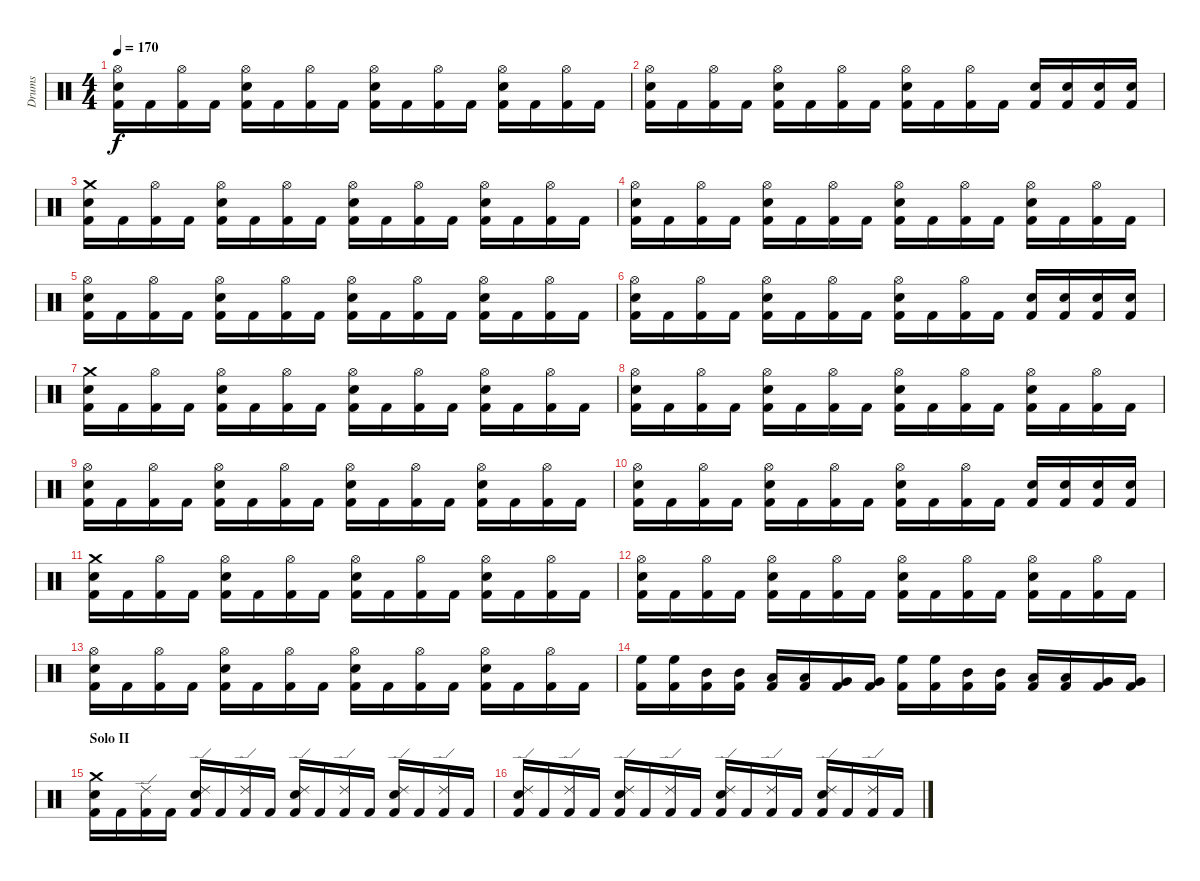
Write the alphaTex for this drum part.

\track ("Drums" "Drums") {instrument percussion}
\staff {score}
\articulation defaults
\ts (4 4)
\tempo 170
\clef neutral
\ks c
("Kick (hit) 2" "Snare (hit) 2" "Hi-Hat (open)").16{dy f} "Kick (hit) 2".16 ("Kick (hit) 2" "Hi-Hat (open)").16 "Kick (hit) 2".16 ("Kick (hit) 2" "Snare (hit) 2" "Hi-Hat (open)").16 "Kick (hit) 2".16 ("Kick (hit) 2" "Hi-Hat (open)").16 "Kick (hit) 2".16 ("Kick (hit) 2" "Snare (hit) 2" "Hi-Hat (open)").16 "Kick (hit) 2".16 ("Kick (hit) 2" "Hi-Hat (open)").16 "Kick (hit) 2".16 ("Kick (hit) 2" "Snare (hit) 2" "Hi-Hat (open)").16 "Kick (hit) 2".16 ("Kick (hit) 2" "Hi-Hat (open)").16 "Kick (hit) 2".16 |
("Kick (hit) 2" "Snare (hit) 2" "Hi-Hat (open)").16 "Kick (hit) 2".16 ("Kick (hit) 2" "Hi-Hat (open)").16 "Kick (hit) 2".16 ("Kick (hit) 2" "Snare (hit) 2" "Hi-Hat (open)").16 "Kick (hit) 2".16 ("Kick (hit) 2" "Hi-Hat (open)").16 "Kick (hit) 2".16 ("Kick (hit) 2" "Snare (hit) 2" "Hi-Hat (open)").16 "Kick (hit) 2".16 ("Kick (hit) 2" "Hi-Hat (open)").16 "Kick (hit) 2".16 ("Kick (hit) 2" "Snare (hit) 2").16 ("Kick (hit) 2" "Snare (hit) 2").16 ("Kick (hit) 2" "Snare (hit) 2").16 ("Kick (hit) 2" "Snare (hit) 2").16 |
("Kick (hit) 2" "Snare (hit) 2" "Crash medium (hit)").16 "Kick (hit) 2".16 ("Kick (hit) 2" "Hi-Hat (open)").16 "Kick (hit) 2".16 ("Kick (hit) 2" "Snare (hit) 2" "Hi-Hat (open)").16 "Kick (hit) 2".16 ("Kick (hit) 2" "Hi-Hat (open)").16 "Kick (hit) 2".16 ("Kick (hit) 2" "Snare (hit) 2" "Hi-Hat (open)").16 "Kick (hit) 2".16 ("Kick (hit) 2" "Hi-Hat (open)").16 "Kick (hit) 2".16 ("Kick (hit) 2" "Snare (hit) 2" "Hi-Hat (open)").16 "Kick (hit) 2".16 ("Kick (hit) 2" "Hi-Hat (open)").16 "Kick (hit) 2".16 |
("Kick (hit) 2" "Snare (hit) 2" "Hi-Hat (open)").16 "Kick (hit) 2".16 ("Kick (hit) 2" "Hi-Hat (open)").16 "Kick (hit) 2".16 ("Kick (hit) 2" "Snare (hit) 2" "Hi-Hat (open)").16 "Kick (hit) 2".16 ("Kick (hit) 2" "Hi-Hat (open)").16 "Kick (hit) 2".16 ("Kick (hit) 2" "Snare (hit) 2" "Hi-Hat (open)").16 "Kick (hit) 2".16 ("Kick (hit) 2" "Hi-Hat (open)").16 "Kick (hit) 2".16 ("Kick (hit) 2" "Snare (hit) 2" "Hi-Hat (open)").16 "Kick (hit) 2".16 ("Kick (hit) 2" "Hi-Hat (open)").16 "Kick (hit) 2".16 |
("Kick (hit) 2" "Snare (hit) 2" "Hi-Hat (open)").16 "Kick (hit) 2".16 ("Kick (hit) 2" "Hi-Hat (open)").16 "Kick (hit) 2".16 ("Kick (hit) 2" "Snare (hit) 2" "Hi-Hat (open)").16 "Kick (hit) 2".16 ("Kick (hit) 2" "Hi-Hat (open)").16 "Kick (hit) 2".16 ("Kick (hit) 2" "Snare (hit) 2" "Hi-Hat (open)").16 "Kick (hit) 2".16 ("Kick (hit) 2" "Hi-Hat (open)").16 "Kick (hit) 2".16 ("Kick (hit) 2" "Snare (hit) 2" "Hi-Hat (open)").16 "Kick (hit) 2".16 ("Kick (hit) 2" "Hi-Hat (open)").16 "Kick (hit) 2".16 |
("Kick (hit) 2" "Snare (hit) 2" "Hi-Hat (open)").16 "Kick (hit) 2".16 ("Kick (hit) 2" "Hi-Hat (open)").16 "Kick (hit) 2".16 ("Kick (hit) 2" "Snare (hit) 2" "Hi-Hat (open)").16 "Kick (hit) 2".16 ("Kick (hit) 2" "Hi-Hat (open)").16 "Kick (hit) 2".16 ("Kick (hit) 2" "Snare (hit) 2" "Hi-Hat (open)").16 "Kick (hit) 2".16 ("Kick (hit) 2" "Hi-Hat (open)").16 "Kick (hit) 2".16 ("Kick (hit) 2" "Snare (hit) 2").16 ("Kick (hit) 2" "Snare (hit) 2").16 ("Kick (hit) 2" "Snare (hit) 2").16 ("Kick (hit) 2" "Snare (hit) 2").16 |
("Kick (hit) 2" "Snare (hit) 2" "Crash medium (hit)").16 "Kick (hit) 2".16 ("Kick (hit) 2" "Hi-Hat (open)").16 "Kick (hit) 2".16 ("Kick (hit) 2" "Snare (hit) 2" "Hi-Hat (open)").16 "Kick (hit) 2".16 ("Kick (hit) 2" "Hi-Hat (open)").16 "Kick (hit) 2".16 ("Kick (hit) 2" "Snare (hit) 2" "Hi-Hat (open)").16 "Kick (hit) 2".16 ("Kick (hit) 2" "Hi-Hat (open)").16 "Kick (hit) 2".16 ("Kick (hit) 2" "Snare (hit) 2" "Hi-Hat (open)").16 "Kick (hit) 2".16 ("Kick (hit) 2" "Hi-Hat (open)").16 "Kick (hit) 2".16 |
("Kick (hit) 2" "Snare (hit) 2" "Hi-Hat (open)").16 "Kick (hit) 2".16 ("Kick (hit) 2" "Hi-Hat (open)").16 "Kick (hit) 2".16 ("Kick (hit) 2" "Snare (hit) 2" "Hi-Hat (open)").16 "Kick (hit) 2".16 ("Kick (hit) 2" "Hi-Hat (open)").16 "Kick (hit) 2".16 ("Kick (hit) 2" "Snare (hit) 2" "Hi-Hat (open)").16 "Kick (hit) 2".16 ("Kick (hit) 2" "Hi-Hat (open)").16 "Kick (hit) 2".16 ("Kick (hit) 2" "Snare (hit) 2" "Hi-Hat (open)").16 "Kick (hit) 2".16 ("Kick (hit) 2" "Hi-Hat (open)").16 "Kick (hit) 2".16 |
("Kick (hit) 2" "Snare (hit) 2" "Hi-Hat (open)").16 "Kick (hit) 2".16 ("Kick (hit) 2" "Hi-Hat (open)").16 "Kick (hit) 2".16 ("Kick (hit) 2" "Snare (hit) 2" "Hi-Hat (open)").16 "Kick (hit) 2".16 ("Kick (hit) 2" "Hi-Hat (open)").16 "Kick (hit) 2".16 ("Kick (hit) 2" "Snare (hit) 2" "Hi-Hat (open)").16 "Kick (hit) 2".16 ("Kick (hit) 2" "Hi-Hat (open)").16 "Kick (hit) 2".16 ("Kick (hit) 2" "Snare (hit) 2" "Hi-Hat (open)").16 "Kick (hit) 2".16 ("Kick (hit) 2" "Hi-Hat (open)").16 "Kick (hit) 2".16 |
("Kick (hit) 2" "Snare (hit) 2" "Hi-Hat (open)").16 "Kick (hit) 2".16 ("Kick (hit) 2" "Hi-Hat (open)").16 "Kick (hit) 2".16 ("Kick (hit) 2" "Snare (hit) 2" "Hi-Hat (open)").16 "Kick (hit) 2".16 ("Kick (hit) 2" "Hi-Hat (open)").16 "Kick (hit) 2".16 ("Kick (hit) 2" "Snare (hit) 2" "Hi-Hat (open)").16 "Kick (hit) 2".16 ("Kick (hit) 2" "Hi-Hat (open)").16 "Kick (hit) 2".16 ("Kick (hit) 2" "Snare (hit) 2").16 ("Kick (hit) 2" "Snare (hit) 2").16 ("Kick (hit) 2" "Snare (hit) 2").16 ("Kick (hit) 2" "Snare (hit) 2").16 |
("Kick (hit) 2" "Snare (hit) 2" "Crash medium (hit)").16 "Kick (hit) 2".16 ("Kick (hit) 2" "Hi-Hat (open)").16 "Kick (hit) 2".16 ("Kick (hit) 2" "Snare (hit) 2" "Hi-Hat (open)").16 "Kick (hit) 2".16 ("Kick (hit) 2" "Hi-Hat (open)").16 "Kick (hit) 2".16 ("Kick (hit) 2" "Snare (hit) 2" "Hi-Hat (open)").16 "Kick (hit) 2".16 ("Kick (hit) 2" "Hi-Hat (open)").16 "Kick (hit) 2".16 ("Kick (hit) 2" "Snare (hit) 2" "Hi-Hat (open)").16 "Kick (hit) 2".16 ("Kick (hit) 2" "Hi-Hat (open)").16 "Kick (hit) 2".16 |
("Kick (hit) 2" "Snare (hit) 2" "Hi-Hat (open)").16 "Kick (hit) 2".16 ("Kick (hit) 2" "Hi-Hat (open)").16 "Kick (hit) 2".16 ("Kick (hit) 2" "Snare (hit) 2" "Hi-Hat (open)").16 "Kick (hit) 2".16 ("Kick (hit) 2" "Hi-Hat (open)").16 "Kick (hit) 2".16 ("Kick (hit) 2" "Snare (hit) 2" "Hi-Hat (open)").16 "Kick (hit) 2".16 ("Kick (hit) 2" "Hi-Hat (open)").16 "Kick (hit) 2".16 ("Kick (hit) 2" "Snare (hit) 2" "Hi-Hat (open)").16 "Kick (hit) 2".16 ("Kick (hit) 2" "Hi-Hat (open)").16 "Kick (hit) 2".16 |
("Kick (hit) 2" "Snare (hit) 2" "Hi-Hat (open)").16 "Kick (hit) 2".16 ("Kick (hit) 2" "Hi-Hat (open)").16 "Kick (hit) 2".16 ("Kick (hit) 2" "Snare (hit) 2" "Hi-Hat (open)").16 "Kick (hit) 2".16 ("Kick (hit) 2" "Hi-Hat (open)").16 "Kick (hit) 2".16 ("Kick (hit) 2" "Snare (hit) 2" "Hi-Hat (open)").16 "Kick (hit) 2".16 ("Kick (hit) 2" "Hi-Hat (open)").16 "Kick (hit) 2".16 ("Kick (hit) 2" "Snare (hit) 2" "Hi-Hat (open)").16 "Kick (hit) 2".16 ("Kick (hit) 2" "Hi-Hat (open)").16 "Kick (hit) 2".16 |
("Kick (hit) 2" "High Floor Tom (hit)").16 ("Kick (hit) 2" "High Floor Tom (hit)").16 ("Kick (hit) 2" "Mid Tom (hit)").16 ("Kick (hit) 2" "Mid Tom (hit)").16 ("Kick (hit) 2" "Low Tom (hit)").16 ("Kick (hit) 2" "Low Tom (hit)").16 ("Kick (hit) 2" "Very Low Tom (hit)").16 ("Kick (hit) 2" "Very Low Tom (hit)").16 ("Kick (hit) 2" "High Floor Tom (hit)").16 ("Kick (hit) 2" "High Floor Tom (hit)").16 ("Kick (hit) 2" "Mid Tom (hit)").16 ("Kick (hit) 2" "Mid Tom (hit)").16 ("Kick (hit) 2" "Low Tom (hit)").16 ("Kick (hit) 2" "Low Tom (hit)").16 ("Kick (hit) 2" "Very Low Tom (hit)").16 ("Kick (hit) 2" "Very Low Tom (hit)").16 |
\section ("" "Solo II")
("Kick (hit) 2" "Snare (hit) 2" "Crash medium (hit)").16 "Kick (hit) 2".16 ("Kick (hit) 2" "Ride (edge) 2").16 "Kick (hit) 2".16 ("Kick (hit) 2" "Snare (hit) 2" "Ride (edge) 2").16 "Kick (hit) 2".16 ("Kick (hit) 2" "Ride (edge) 2").16 "Kick (hit) 2".16 ("Kick (hit) 2" "Snare (hit) 2" "Ride (edge) 2").16 "Kick (hit) 2".16 ("Kick (hit) 2" "Ride (edge) 2").16 "Kick (hit) 2".16 ("Kick (hit) 2" "Snare (hit) 2" "Ride (edge) 2").16 "Kick (hit) 2".16 ("Kick (hit) 2" "Ride (edge) 2").16 "Kick (hit) 2".16 |
("Kick (hit) 2" "Snare (hit) 2" "Ride (edge) 2").16 "Kick (hit) 2".16 ("Kick (hit) 2" "Ride (edge) 2").16 "Kick (hit) 2".16 ("Kick (hit) 2" "Snare (hit) 2" "Ride (edge) 2").16 "Kick (hit) 2".16 ("Kick (hit) 2" "Ride (edge) 2").16 "Kick (hit) 2".16 ("Kick (hit) 2" "Snare (hit) 2" "Ride (edge) 2").16 "Kick (hit) 2".16 ("Kick (hit) 2" "Ride (edge) 2").16 "Kick (hit) 2".16 ("Kick (hit) 2" "Snare (hit) 2" "Ride (edge) 2").16 "Kick (hit) 2".16 ("Kick (hit) 2" "Ride (edge) 2").16 "Kick (hit) 2".16
